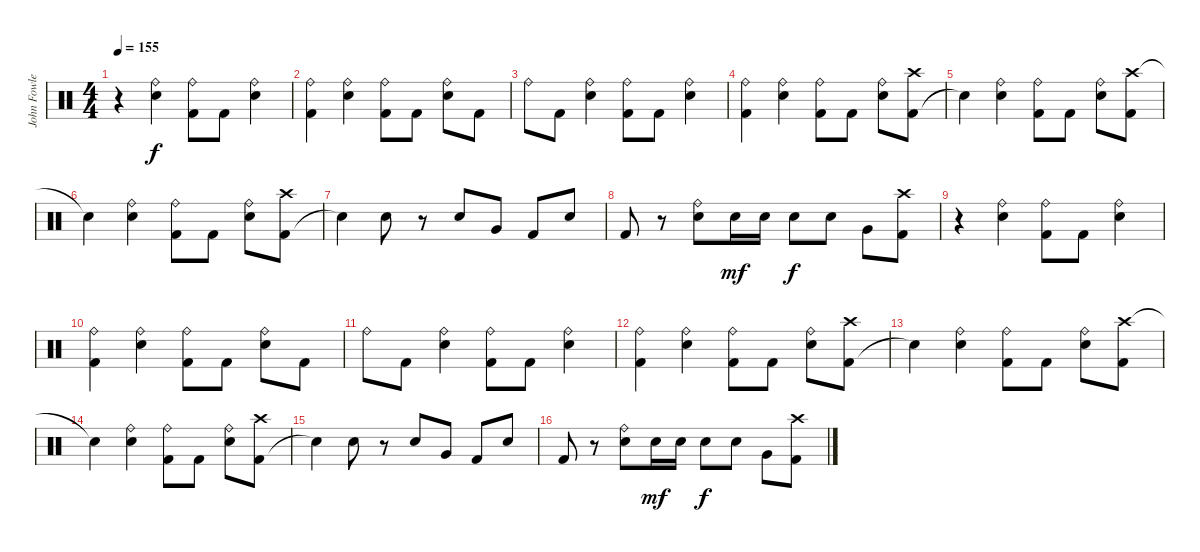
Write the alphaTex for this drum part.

\track ("John Fowler - Drums" "John Fowle") {instrument percussion}
\staff {score}
\articulation defaults
\ts (4 4)
\tempo 155
\clef neutral
\ks c
r.4{dy f} ("Ride (bell)" "Electric Snare (hit)").4 ("Ride (bell)" "Kick (hit) 2").8 "Kick (hit) 2".8 ("Electric Snare (hit)" "Ride (bell)").4 |
("Ride (bell)" "Kick (hit) 2").4 ("Ride (bell)" "Electric Snare (hit)").4 ("Kick (hit) 2" "Ride (bell)").8 "Kick (hit) 2".8 ("Ride (bell)" "Electric Snare (hit)").8 "Kick (hit) 2".8 |
"Ride (bell)".8 "Kick (hit) 2".8 ("Ride (bell)" "Electric Snare (hit)").4 ("Ride (bell)" "Kick (hit) 2").8 "Kick (hit) 2".8 ("Ride (bell)" "Electric Snare (hit)").4 |
("Ride (bell)" "Kick (hit) 2").4 ("Electric Snare (hit)" "Ride (bell)").4 ("Kick (hit) 2" "Ride (bell)").8 "Kick (hit) 2".8 ("Electric Snare (hit)" "Ride (bell)").8 ("Kick (hit) 2" "Crash high (hit)").8 |
"Snare (hit)"{t}.4 ("Ride (bell)" "Electric Snare (hit)").4 ("Ride (bell)" "Kick (hit) 2").8 "Kick (hit) 2".8 ("Ride (bell)" "Electric Snare (hit)").8 ("Crash high (hit)" "Kick (hit) 2").8 |
"Snare (hit)"{t}.4 ("Ride (bell)" "Electric Snare (hit)").4 ("Ride (bell)" "Kick (hit) 2").8 "Kick (hit) 2".8 ("Ride (bell)" "Electric Snare (hit)").8 ("Kick (hit) 2" "Crash high (hit)").8 |
"Snare (hit)"{t}.4 "Electric Snare (hit)".8 r.8 "Electric Snare (hit)".8 "Very Low Tom (hit)".8 "Kick (hit) 2".8 "Electric Snare (hit)".8 |
"Kick (hit) 2".8 r.8 ("Ride (bell)" "Electric Snare (hit)").8 "Electric Snare (hit)".16{dy mf} "Electric Snare (hit)".16 "Electric Snare (hit)".8{dy f} "Electric Snare (hit)".8 "Very Low Tom (hit)".8 ("Kick (hit) 2" "Crash high (hit)").8 |
r.4 ("Ride (bell)" "Electric Snare (hit)").4 ("Ride (bell)" "Kick (hit) 2").8 "Kick (hit) 2".8 ("Electric Snare (hit)" "Ride (bell)").4 |
("Ride (bell)" "Kick (hit) 2").4 ("Ride (bell)" "Electric Snare (hit)").4 ("Kick (hit) 2" "Ride (bell)").8 "Kick (hit) 2".8 ("Ride (bell)" "Electric Snare (hit)").8 "Kick (hit) 2".8 |
"Ride (bell)".8 "Kick (hit) 2".8 ("Ride (bell)" "Electric Snare (hit)").4 ("Ride (bell)" "Kick (hit) 2").8 "Kick (hit) 2".8 ("Ride (bell)" "Electric Snare (hit)").4 |
("Ride (bell)" "Kick (hit) 2").4 ("Electric Snare (hit)" "Ride (bell)").4 ("Kick (hit) 2" "Ride (bell)").8 "Kick (hit) 2".8 ("Electric Snare (hit)" "Ride (bell)").8 ("Kick (hit) 2" "Crash high (hit)").8 |
"Snare (hit)"{t}.4 ("Ride (bell)" "Electric Snare (hit)").4 ("Ride (bell)" "Kick (hit) 2").8 "Kick (hit) 2".8 ("Ride (bell)" "Electric Snare (hit)").8 ("Crash high (hit)" "Kick (hit) 2").8 |
"Snare (hit)"{t}.4 ("Ride (bell)" "Electric Snare (hit)").4 ("Ride (bell)" "Kick (hit) 2").8 "Kick (hit) 2".8 ("Ride (bell)" "Electric Snare (hit)").8 ("Kick (hit) 2" "Crash high (hit)").8 |
"Snare (hit)"{t}.4 "Electric Snare (hit)".8 r.8 "Electric Snare (hit)".8 "Very Low Tom (hit)".8 "Kick (hit) 2".8 "Electric Snare (hit)".8 |
"Kick (hit) 2".8 r.8 ("Ride (bell)" "Electric Snare (hit)").8 "Electric Snare (hit)".16{dy mf} "Electric Snare (hit)".16 "Electric Snare (hit)".8{dy f} "Electric Snare (hit)".8 "Very Low Tom (hit)".8 ("Kick (hit) 2" "Crash high (hit)").8
